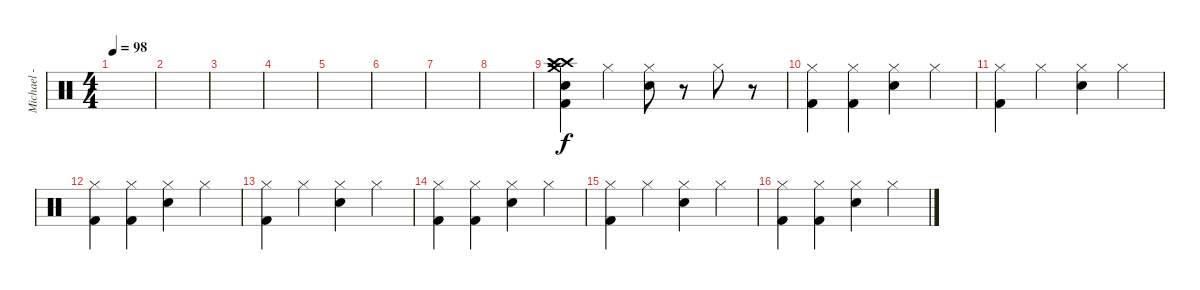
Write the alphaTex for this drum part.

\track ("Michael - Drums" "Michael - ") {instrument percussion}
\staff {score}
\articulation defaults
\ts (4 4)
\tempo 98
\clef neutral
\ks c
|
|
|
|
|
|
|
|
("Crash medium (hit)" "Crash high (hit)" "Crash high (hit)" "Snare (hit) 2" "Kick (hit) 2").4 "Hi-Hat (closed)".4 ("Hi-Hat (closed)" "Snare (hit) 2").8 r.8 "Hi-Hat (closed)".8 r.8 |
("Hi-Hat (closed)" "Kick (hit) 2").4 ("Hi-Hat (closed)" "Kick (hit) 2").4 ("Hi-Hat (closed)" "Snare (hit) 2").4 "Hi-Hat (closed)".4 |
("Hi-Hat (closed)" "Kick (hit) 2").4 "Hi-Hat (closed)".4 ("Hi-Hat (closed)" "Snare (hit) 2").4 "Hi-Hat (closed)".4 |
("Hi-Hat (closed)" "Kick (hit) 2").4 ("Hi-Hat (closed)" "Kick (hit) 2").4 ("Hi-Hat (closed)" "Snare (hit) 2").4 "Hi-Hat (closed)".4 |
("Hi-Hat (closed)" "Kick (hit) 2").4 "Hi-Hat (closed)".4 ("Hi-Hat (closed)" "Snare (hit) 2").4 "Hi-Hat (closed)".4 |
("Hi-Hat (closed)" "Kick (hit) 2").4 ("Hi-Hat (closed)" "Kick (hit) 2").4 ("Hi-Hat (closed)" "Snare (hit) 2").4 "Hi-Hat (closed)".4 |
("Hi-Hat (closed)" "Kick (hit) 2").4 "Hi-Hat (closed)".4 ("Hi-Hat (closed)" "Snare (hit) 2").4 "Hi-Hat (closed)".4 |
("Hi-Hat (closed)" "Kick (hit) 2").4 ("Hi-Hat (closed)" "Kick (hit) 2").4 ("Hi-Hat (closed)" "Snare (hit) 2").4 "Hi-Hat (closed)".4
